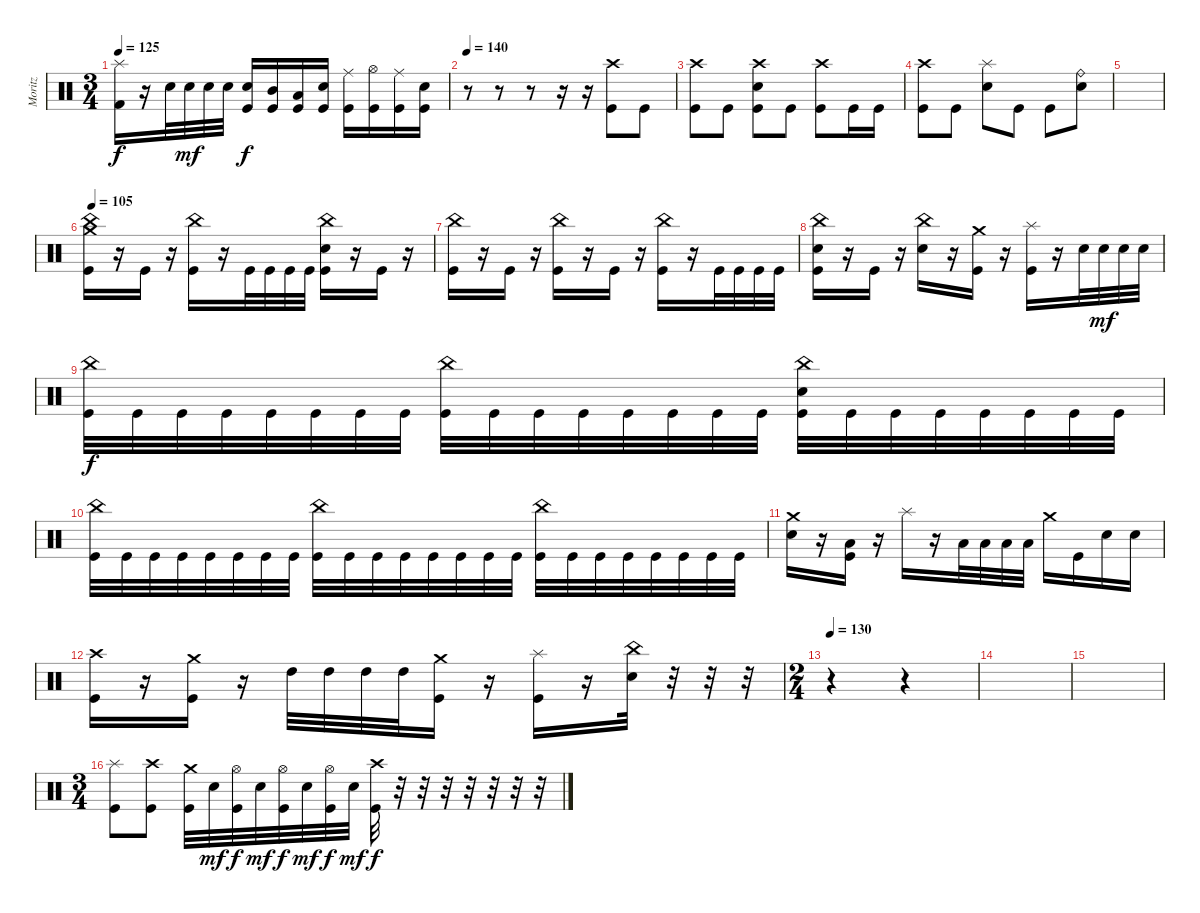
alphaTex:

\track ("Moritz" "Moritz") {instrument percussion}
\staff {score}
\articulation defaults
\ts (3 4)
\tempo 125
\clef neutral
\ks c
("Splash (hit)" "Kick (hit) 2").16{dy f} r.16 "Snare (hit) 2".32 "Snare (hit) 2".32{dy mf} "Snare (hit) 2".32 "Snare (hit) 2".32 ("Snare (hit) 2" "Kick (hit)").16{dy f} ("Mid Tom (hit)" "Kick (hit)").16 ("Low Floor Tom (hit)" "Kick (hit)").16 ("Snare (hit) 2" "Kick (hit)").16 ("Ride (middle)" "Kick (hit)").16 ("Hi-Hat (open)" "Kick (hit)").16 ("Ride (middle)" "Kick (hit)").16 ("Snare (hit) 2" "Kick (hit)").16 |
\tempo 140
r.8 r.8 r.8 r.16 r.16 ("Crash high (hit)" "Kick (hit)").8 "Kick (hit)".8 |
("Crash high (hit)" "Kick (hit)").8 "Kick (hit)".8 ("Crash high (hit)" "Snare (hit) 2" "Kick (hit)").8 "Kick (hit)".8 ("Crash high (hit)" "Kick (hit)").8 "Kick (hit)".16 "Kick (hit)".16 |
("Crash high (hit)" "Kick (hit)").8 "Kick (hit)".8 ("Splash (hit)" "Snare (hit) 2").8 "Kick (hit)".8 "Kick (hit)".8 ("Ride (bell)" "Snare (hit) 2").8 |
|
\tempo 105
("Crash medium (hit)" "China (hit)" "Kick (hit)").16 r.16 "Kick (hit)".16 r.16 ("China (hit)" "Kick (hit)").16 r.16 "Kick (hit)".32 "Kick (hit)".32 "Kick (hit)".32 "Kick (hit)".32 ("China (hit)" "Snare (hit) 2" "Kick (hit)").16 r.16 "Kick (hit)".16 r.16 |
("China (hit)" "Kick (hit)").16 r.16 "Kick (hit)".16 r.16 ("China (hit)" "Kick (hit)").16 r.16 "Kick (hit)".16 r.16 ("China (hit)" "Kick (hit)").16 r.16 "Kick (hit)".32 "Kick (hit)".32 "Kick (hit)".32 "Kick (hit)".32 |
("China (hit)" "Snare (hit) 2" "Kick (hit)").16 r.16 "Kick (hit)".16 r.16 ("China (hit)" "Snare (hit) 2").16 r.16 ("Crash medium (hit)" "Kick (hit)").16 r.16 ("Splash (hit)" "Kick (hit)").16 r.16 "Snare (hit) 2".32 "Snare (hit) 2".32{dy mf} "Snare (hit) 2".32 "Snare (hit) 2".32 |
("China (hit)" "Kick (hit)").32{dy f} "Kick (hit)".32 "Kick (hit)".32 "Kick (hit)".32 "Kick (hit)".32 "Kick (hit)".32 "Kick (hit)".32 "Kick (hit)".32 ("China (hit)" "Kick (hit)").32 "Kick (hit)".32 "Kick (hit)".32 "Kick (hit)".32 "Kick (hit)".32 "Kick (hit)".32 "Kick (hit)".32 "Kick (hit)".32 ("China (hit)" "Snare (hit) 2" "Kick (hit)").32 "Kick (hit)".32 "Kick (hit)".32 "Kick (hit)".32 "Kick (hit)".32 "Kick (hit)".32 "Kick (hit)".32 "Kick (hit)".32 |
("China (hit)" "Kick (hit)").32 "Kick (hit)".32 "Kick (hit)".32 "Kick (hit)".32 "Kick (hit)".32 "Kick (hit)".32 "Kick (hit)".32 "Kick (hit)".32 ("China (hit)" "Kick (hit)").32 "Kick (hit)".32 "Kick (hit)".32 "Kick (hit)".32 "Kick (hit)".32 "Kick (hit)".32 "Kick (hit)".32 "Kick (hit)".32 ("China (hit)" "Kick (hit)").32 "Kick (hit)".32 "Kick (hit)".32 "Kick (hit)".32 "Kick (hit)".32 "Kick (hit)".32 "Kick (hit)".32 "Kick (hit)".32 |
("Crash medium (hit)" "Snare (hit) 2").16 r.16 ("Low Floor Tom (hit)" "Kick (hit)").16 r.16 "Splash (hit)".16 r.16 "Low Tom (hit)".32 "Low Tom (hit)".32 "Low Tom (hit)".32 "Low Tom (hit)".32 "Crash medium (hit)".16 "Kick (hit)".16 "Snare (hit) 2".16 "Snare (hit) 2".16 |
("Crash high (hit)" "Kick (hit)").16 r.16 ("Crash medium (hit)" "Kick (hit)").16 r.16 "High Tom (hit)".32 "High Tom (hit)".32 "High Tom (hit)".32 "High Tom (hit)".32 ("Crash medium (hit)" "Kick (hit)").16 r.16 ("Splash (hit)" "Kick (hit)").16 r.16 ("China (hit)" "Snare (hit) 2").32 r.32 r.32 r.32 |
\ts (2 4)
\tempo 130
r.4 r.4 |
|
|
\ts (3 4)
("Splash (hit)" "Kick (hit)").8 ("Crash high (hit)" "Kick (hit)").8 ("Crash medium (hit)" "Kick (hit)").32 "Snare (hit) 2".32{dy mf} ("Hi-Hat (open)" "Kick (hit)").32{dy f} "Snare (hit) 2".32{dy mf} ("Hi-Hat (open)" "Kick (hit)").32{dy f} "Snare (hit) 2".32{dy mf} ("Hi-Hat (open)" "Kick (hit)").32{dy f} "Snare (hit) 2".32{dy mf} ("Crash high (hit)" "Kick (hit)").32{dy f} r.32 r.32 r.32 r.32 r.32 r.32 r.32
